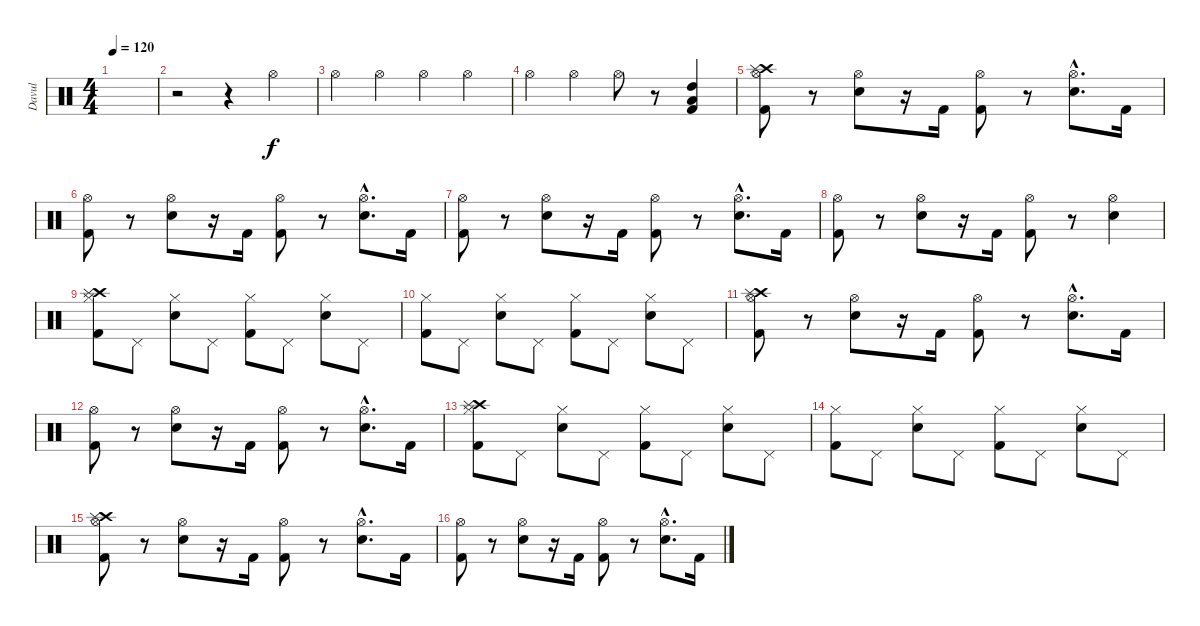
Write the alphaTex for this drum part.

\track ("Davul" "Davul") {instrument percussion}
\staff {score}
\articulation defaults
\ts (4 4)
\tempo 120
\clef neutral
\ks c
|
r.2 r.4 "Hi-Hat (open)".4 |
"Hi-Hat (open)".4 "Hi-Hat (open)".4 "Hi-Hat (open)".4 "Hi-Hat (open)".4 |
"Hi-Hat (open)".4 "Hi-Hat (open)".4 "Hi-Hat (open)".8 r.8 ("Kick (hit) 2" "Low Tom (hit)" "High Tom (hit)").4 |
("Hi-Hat (open)" "Kick (hit) 2" "Crash high (hit)" "Splash (hit)").8 r.8 ("Hi-Hat (open)" "Snare (hit) 2").8 r.16 "Kick (hit) 2".16 ("Hi-Hat (open)" "Kick (hit) 2").8 r.8 ("Hi-Hat (open)"{hac} "Snare (hit) 2"{hac}).8{d} "Kick (hit) 2".16 |
("Hi-Hat (open)" "Kick (hit) 2").8 r.8 ("Hi-Hat (open)" "Snare (hit) 2").8 r.16 "Kick (hit) 2".16 ("Hi-Hat (open)" "Kick (hit) 2").8 r.8 ("Hi-Hat (open)"{hac} "Snare (hit) 2"{hac}).8{d} "Kick (hit) 2".16 |
("Hi-Hat (open)" "Kick (hit) 2").8 r.8 ("Hi-Hat (open)" "Snare (hit) 2").8 r.16 "Kick (hit) 2".16 ("Hi-Hat (open)" "Kick (hit) 2").8 r.8 ("Hi-Hat (open)"{hac} "Snare (hit) 2"{hac}).8{d} "Kick (hit) 2".16 |
("Hi-Hat (open)" "Kick (hit) 2").8 r.8 ("Hi-Hat (open)" "Snare (hit) 2").8 r.16 "Kick (hit) 2".16 ("Hi-Hat (open)" "Kick (hit) 2").8 r.8 ("Hi-Hat (open)" "Snare (hit) 2").4 |
("Hi-Hat (closed)" "Kick (hit) 2" "Crash high (hit)" "Splash (hit)").8 "Pedal Hi-Hat (hit)".8 ("Hi-Hat (closed)" "Snare (hit) 2").8 "Pedal Hi-Hat (hit)".8 ("Hi-Hat (closed)" "Kick (hit) 2").8 "Pedal Hi-Hat (hit)".8 ("Hi-Hat (closed)" "Snare (hit) 2").8 "Pedal Hi-Hat (hit)".8 |
("Hi-Hat (closed)" "Kick (hit) 2").8 "Pedal Hi-Hat (hit)".8 ("Hi-Hat (closed)" "Snare (hit) 2").8 "Pedal Hi-Hat (hit)".8 ("Hi-Hat (closed)" "Kick (hit) 2").8 "Pedal Hi-Hat (hit)".8 ("Hi-Hat (closed)" "Snare (hit) 2").8 "Pedal Hi-Hat (hit)".8 |
("Hi-Hat (open)" "Kick (hit) 2" "Crash high (hit)" "Splash (hit)").8 r.8 ("Hi-Hat (open)" "Snare (hit) 2").8 r.16 "Kick (hit) 2".16 ("Hi-Hat (open)" "Kick (hit) 2").8 r.8 ("Hi-Hat (open)"{hac} "Snare (hit) 2"{hac}).8{d} "Kick (hit) 2".16 |
("Hi-Hat (open)" "Kick (hit) 2").8 r.8 ("Hi-Hat (open)" "Snare (hit) 2").8 r.16 "Kick (hit) 2".16 ("Hi-Hat (open)" "Kick (hit) 2").8 r.8 ("Hi-Hat (open)"{hac} "Snare (hit) 2"{hac}).8{d} "Kick (hit) 2".16 |
("Hi-Hat (closed)" "Kick (hit) 2" "Crash high (hit)" "Splash (hit)").8 "Pedal Hi-Hat (hit)".8 ("Hi-Hat (closed)" "Snare (hit) 2").8 "Pedal Hi-Hat (hit)".8 ("Hi-Hat (closed)" "Kick (hit) 2").8 "Pedal Hi-Hat (hit)".8 ("Hi-Hat (closed)" "Snare (hit) 2").8 "Pedal Hi-Hat (hit)".8 |
("Hi-Hat (closed)" "Kick (hit) 2").8 "Pedal Hi-Hat (hit)".8 ("Hi-Hat (closed)" "Snare (hit) 2").8 "Pedal Hi-Hat (hit)".8 ("Hi-Hat (closed)" "Kick (hit) 2").8 "Pedal Hi-Hat (hit)".8 ("Hi-Hat (closed)" "Snare (hit) 2").8 "Pedal Hi-Hat (hit)".8 |
("Hi-Hat (open)" "Kick (hit) 2" "Crash high (hit)" "Splash (hit)").8 r.8 ("Hi-Hat (open)" "Snare (hit) 2").8 r.16 "Kick (hit) 2".16 ("Hi-Hat (open)" "Kick (hit) 2").8 r.8 ("Hi-Hat (open)"{hac} "Snare (hit) 2"{hac}).8{d} "Kick (hit) 2".16 |
("Hi-Hat (open)" "Kick (hit) 2").8 r.8 ("Hi-Hat (open)" "Snare (hit) 2").8 r.16 "Kick (hit) 2".16 ("Hi-Hat (open)" "Kick (hit) 2").8 r.8 ("Hi-Hat (open)"{hac} "Snare (hit) 2"{hac}).8{d} "Kick (hit) 2".16
